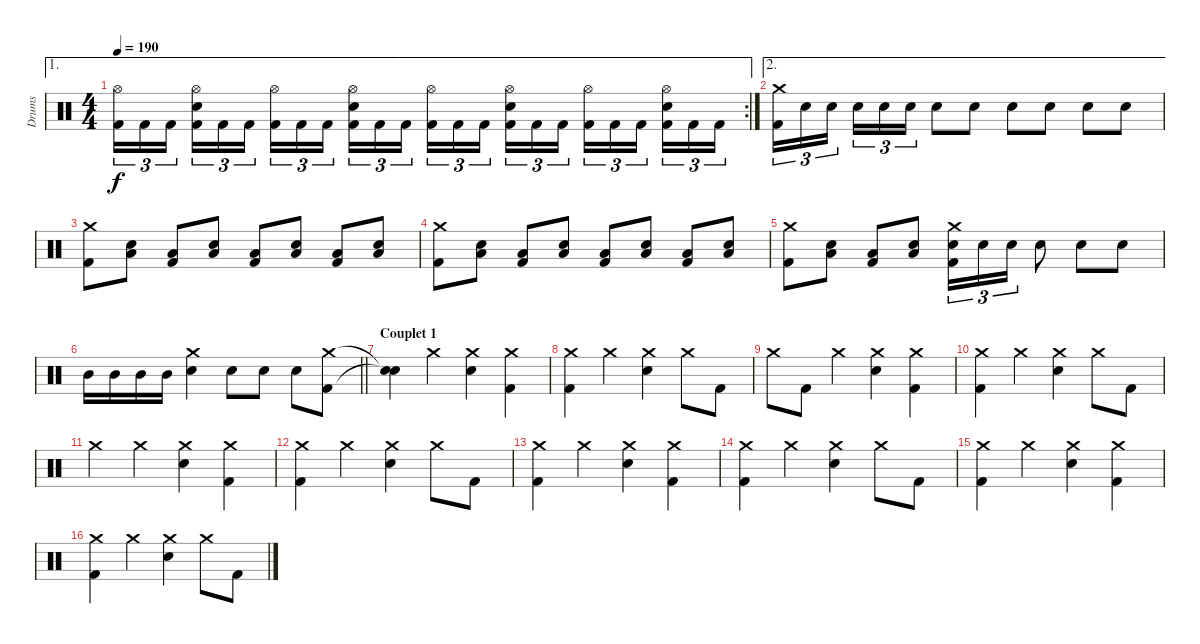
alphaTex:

\track ("Drums" "Drums") {instrument percussion}
\staff {score}
\articulation defaults
\ae 1
\rc 2
\ts (4 4)
\tempo 190
\clef neutral
\ks c
("Hi-Hat (open)" "Kick (hit) 2").16{tu (3 2) dy f} "Kick (hit) 2".16{tu (3 2)} "Kick (hit) 2".16{tu (3 2) beam splitsecondary} ("Hi-Hat (open)" "Snare (hit) 2" "Kick (hit) 2").16{tu (3 2)} "Kick (hit) 2".16{tu (3 2)} "Kick (hit) 2".16{tu (3 2)} ("Hi-Hat (open)" "Kick (hit) 2").16{tu (3 2)} "Kick (hit) 2".16{tu (3 2)} "Kick (hit) 2".16{tu (3 2) beam splitsecondary} ("Hi-Hat (open)" "Snare (hit) 2" "Kick (hit) 2").16{tu (3 2)} "Kick (hit) 2".16{tu (3 2)} "Kick (hit) 2".16{tu (3 2)} ("Hi-Hat (open)" "Kick (hit) 2").16{tu (3 2)} "Kick (hit) 2".16{tu (3 2)} "Kick (hit) 2".16{tu (3 2) beam splitsecondary} ("Hi-Hat (open)" "Snare (hit) 2" "Kick (hit) 2").16{tu (3 2)} "Kick (hit) 2".16{tu (3 2)} "Kick (hit) 2".16{tu (3 2)} ("Hi-Hat (open)" "Kick (hit) 2").16{tu (3 2)} "Kick (hit) 2".16{tu (3 2)} "Kick (hit) 2".16{tu (3 2) beam splitsecondary} ("Hi-Hat (open)" "Snare (hit) 2" "Kick (hit) 2").16{tu (3 2)} "Kick (hit) 2".16{tu (3 2)} "Kick (hit) 2".16{tu (3 2)} |
\ae 2
("Crash medium (hit)" "Kick (hit) 2").16{tu (3 2)} "Snare (hit) 2".16{tu (3 2)} "Snare (hit) 2".16{tu (3 2) beam splitsecondary} "Snare (hit) 2".16{tu (3 2)} "Snare (hit) 2".16{tu (3 2)} "Snare (hit) 2".16{tu (3 2)} "Snare (hit) 2".8 "Snare (hit) 2".8 "Snare (hit) 2".8 "Snare (hit) 2".8 "Snare (hit) 2".8 "Snare (hit) 2".8 |
("Crash medium (hit)" "Kick (hit) 2").8 ("Low Floor Tom (hit)" "Snare (hit) 2").8 ("Low Floor Tom (hit)" "Kick (hit) 2").8 ("Low Floor Tom (hit)" "Snare (hit) 2").8 ("Low Floor Tom (hit)" "Kick (hit) 2").8 ("Low Floor Tom (hit)" "Snare (hit) 2").8 ("Low Floor Tom (hit)" "Kick (hit) 2").8 ("Low Floor Tom (hit)" "Snare (hit) 2").8 |
("Crash medium (hit)" "Kick (hit) 2").8 ("Low Floor Tom (hit)" "Snare (hit) 2").8 ("Low Floor Tom (hit)" "Kick (hit) 2").8 ("Low Floor Tom (hit)" "Snare (hit) 2").8 ("Low Floor Tom (hit)" "Kick (hit) 2").8 ("Low Floor Tom (hit)" "Snare (hit) 2").8 ("Low Floor Tom (hit)" "Kick (hit) 2").8 ("Low Floor Tom (hit)" "Snare (hit) 2").8 |
("Crash medium (hit)" "Kick (hit) 2").8 ("Low Floor Tom (hit)" "Snare (hit) 2").8 ("Low Floor Tom (hit)" "Kick (hit) 2").8 ("Low Floor Tom (hit)" "Snare (hit) 2").8 ("Crash medium (hit)" "Kick (hit) 2" "Snare (hit) 2").16{tu (3 2)} "Snare (hit) 2".16{tu (3 2)} "Snare (hit) 2".16{tu (3 2)} "Snare (hit) 2".8 "Snare (hit) 2".8 "Snare (hit) 2".8 |
\barLineRight lightlight "Mid Tom (hit)".16 "Mid Tom (hit)".16 "Mid Tom (hit)".16 "Mid Tom (hit)".16
("Crash medium (hit)" "Snare (hit) 2").4 "Snare (hit) 2".8 "Snare (hit) 2".8 "Snare (hit) 2".8 ("Crash medium (hit)" "Kick (hit) 2").8 |
\section ("" "Couplet 1")
("Snare (hit)"{t} "Snare (hit)"{t}).4 "Crash medium (hit)".4 ("Crash medium (hit)" "Snare (hit) 2").4 ("Crash medium (hit)" "Kick (hit) 2").4 |
("Crash medium (hit)" "Kick (hit) 2").4 "Crash medium (hit)".4 ("Crash medium (hit)" "Snare (hit) 2").4 "Crash medium (hit)".8 "Kick (hit) 2".8 |
"Crash medium (hit)".8 "Kick (hit) 2".8 "Crash medium (hit)".4 ("Crash medium (hit)" "Snare (hit) 2").4 ("Crash medium (hit)" "Kick (hit) 2").4 |
("Crash medium (hit)" "Kick (hit) 2").4 "Crash medium (hit)".4 ("Crash medium (hit)" "Snare (hit) 2").4 "Crash medium (hit)".8 "Kick (hit) 2".8 |
"Crash medium (hit)".4 "Crash medium (hit)".4 ("Crash medium (hit)" "Snare (hit) 2").4 ("Crash medium (hit)" "Kick (hit) 2").4 |
("Crash medium (hit)" "Kick (hit) 2").4 "Crash medium (hit)".4 ("Crash medium (hit)" "Snare (hit) 2").4 "Crash medium (hit)".8 "Kick (hit) 2".8 |
("Crash medium (hit)" "Kick (hit) 2").4 "Crash medium (hit)".4 ("Crash medium (hit)" "Snare (hit) 2").4 ("Crash medium (hit)" "Kick (hit) 2").4 |
("Crash medium (hit)" "Kick (hit) 2").4 "Crash medium (hit)".4 ("Crash medium (hit)" "Snare (hit) 2").4 "Crash medium (hit)".8 "Kick (hit) 2".8 |
("Crash medium (hit)" "Kick (hit) 2").4 "Crash medium (hit)".4 ("Crash medium (hit)" "Snare (hit) 2").4 ("Crash medium (hit)" "Kick (hit) 2").4 |
("Crash medium (hit)" "Kick (hit) 2").4 "Crash medium (hit)".4 ("Crash medium (hit)" "Snare (hit) 2").4 "Crash medium (hit)".8 "Kick (hit) 2".8
